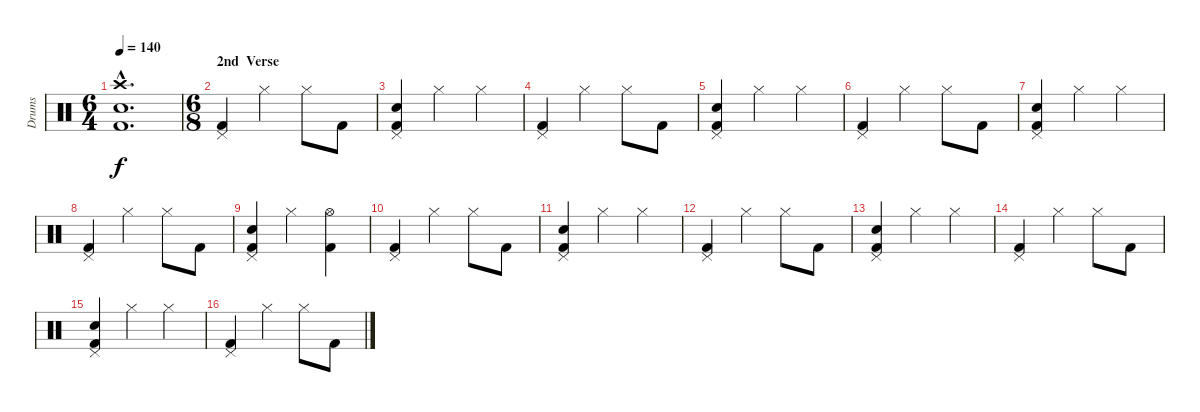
\track ("Drums" "Drums") {instrument percussion}
\staff {score}
\articulation defaults
\ts (6 4)
\tempo 140
\clef neutral
\ks c
("Kick (hit) 2"{hac} "Electric Snare (hit)"{hac} "Crash high (hit)"{hac}).1{d dy f} |
\ts (6 8)
\section ("" "2nd  Verse")
("Kick (hit) 2" "Pedal Hi-Hat (hit)").4 "Hi-Hat (closed)".4 "Hi-Hat (closed)".8 "Kick (hit) 2".8 |
("Electric Snare (hit)" "Kick (hit) 2" "Pedal Hi-Hat (hit)").4 "Hi-Hat (closed)".4 "Hi-Hat (closed)".4 |
("Kick (hit) 2" "Pedal Hi-Hat (hit)").4 "Hi-Hat (closed)".4 "Hi-Hat (closed)".8 "Kick (hit) 2".8 |
("Electric Snare (hit)" "Kick (hit) 2" "Pedal Hi-Hat (hit)").4 "Hi-Hat (closed)".4 "Hi-Hat (closed)".4 |
("Kick (hit) 2" "Pedal Hi-Hat (hit)").4 "Hi-Hat (closed)".4 "Hi-Hat (closed)".8 "Kick (hit) 2".8 |
("Electric Snare (hit)" "Kick (hit) 2" "Pedal Hi-Hat (hit)").4 "Hi-Hat (closed)".4 "Hi-Hat (closed)".4 |
("Kick (hit) 2" "Pedal Hi-Hat (hit)").4 "Hi-Hat (closed)".4 "Hi-Hat (closed)".8 "Kick (hit) 2".8 |
("Electric Snare (hit)" "Kick (hit) 2" "Pedal Hi-Hat (hit)").4 "Hi-Hat (closed)".4 ("Kick (hit) 2" "Hi-Hat (open)").4 |
("Kick (hit) 2" "Pedal Hi-Hat (hit)").4 "Hi-Hat (closed)".4 "Hi-Hat (closed)".8 "Kick (hit) 2".8 |
("Electric Snare (hit)" "Kick (hit) 2" "Pedal Hi-Hat (hit)").4 "Hi-Hat (closed)".4 "Hi-Hat (closed)".4 |
("Kick (hit) 2" "Pedal Hi-Hat (hit)").4 "Hi-Hat (closed)".4 "Hi-Hat (closed)".8 "Kick (hit) 2".8 |
("Electric Snare (hit)" "Kick (hit) 2" "Pedal Hi-Hat (hit)").4 "Hi-Hat (closed)".4 "Hi-Hat (closed)".4 |
("Kick (hit) 2" "Pedal Hi-Hat (hit)").4 "Hi-Hat (closed)".4 "Hi-Hat (closed)".8 "Kick (hit) 2".8 |
("Electric Snare (hit)" "Kick (hit) 2" "Pedal Hi-Hat (hit)").4 "Hi-Hat (closed)".4 "Hi-Hat (closed)".4 |
("Kick (hit) 2" "Pedal Hi-Hat (hit)").4 "Hi-Hat (closed)".4 "Hi-Hat (closed)".8 "Kick (hit) 2".8
